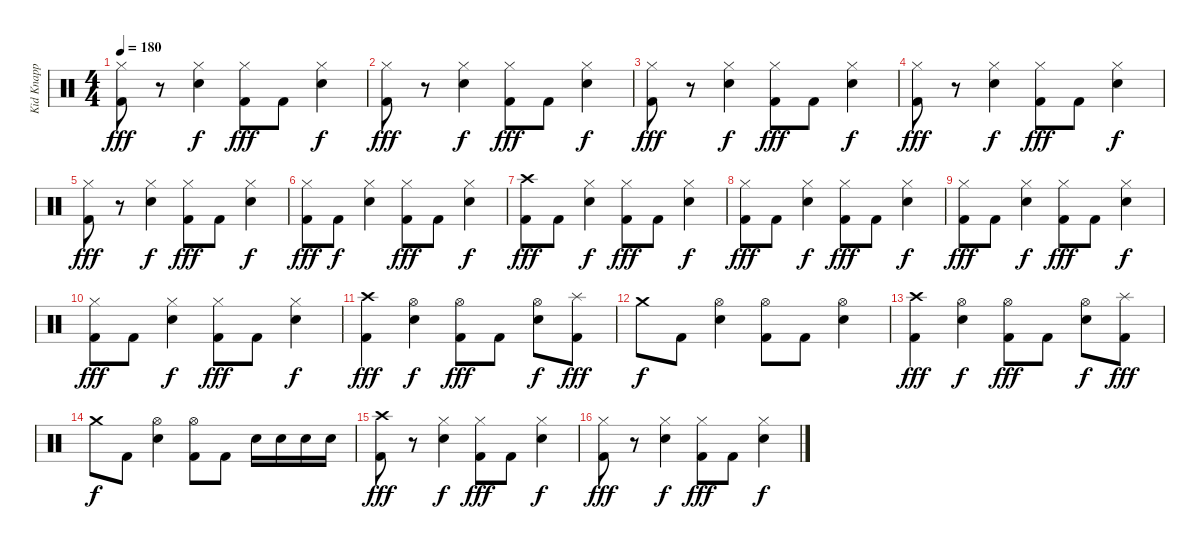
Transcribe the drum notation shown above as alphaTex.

\track ("Kid Knapp (Drums)" "Kid Knapp ") {instrument percussion}
\staff {score}
\articulation defaults
\ts (4 4)
\tempo 180
\clef neutral
\ks c
("Hi-Hat (closed)" "Kick (hit) 2").8{dy fff} r.8 ("Hi-Hat (closed)" "Snare (hit) 2").4{dy f} ("Hi-Hat (closed)" "Kick (hit) 2").8{dy fff} "Kick (hit) 2".8 ("Hi-Hat (closed)" "Snare (hit) 2").4{dy f} |
("Hi-Hat (closed)" "Kick (hit) 2").8{dy fff} r.8 ("Hi-Hat (closed)" "Snare (hit) 2").4{dy f} ("Hi-Hat (closed)" "Kick (hit) 2").8{dy fff} "Kick (hit) 2".8 ("Hi-Hat (closed)" "Snare (hit) 2").4{dy f} |
("Hi-Hat (closed)" "Kick (hit) 2").8{dy fff} r.8 ("Hi-Hat (closed)" "Snare (hit) 2").4{dy f} ("Hi-Hat (closed)" "Kick (hit) 2").8{dy fff} "Kick (hit) 2".8 ("Hi-Hat (closed)" "Snare (hit) 2").4{dy f} |
("Hi-Hat (closed)" "Kick (hit) 2").8{dy fff} r.8 ("Hi-Hat (closed)" "Snare (hit) 2").4{dy f} ("Hi-Hat (closed)" "Kick (hit) 2").8{dy fff} "Kick (hit) 2".8 ("Hi-Hat (closed)" "Snare (hit) 2").4{dy f} |
("Hi-Hat (closed)" "Kick (hit) 2").8{dy fff} r.8 ("Hi-Hat (closed)" "Snare (hit) 2").4{dy f} ("Hi-Hat (closed)" "Kick (hit) 2").8{dy fff} "Kick (hit) 2".8 ("Hi-Hat (closed)" "Snare (hit) 2").4{dy f} |
("Hi-Hat (closed)" "Kick (hit) 2").8{dy fff} "Kick (hit) 2".8{dy f} ("Hi-Hat (closed)" "Snare (hit) 2").4 ("Hi-Hat (closed)" "Kick (hit) 2").8{dy fff} "Kick (hit) 2".8 ("Hi-Hat (closed)" "Snare (hit) 2").4{dy f} |
("Crash high (hit)" "Kick (hit) 2").8{dy fff} "Kick (hit) 2".8 ("Hi-Hat (closed)" "Snare (hit) 2").4{dy f} ("Hi-Hat (closed)" "Kick (hit) 2").8{dy fff} "Kick (hit) 2".8 ("Hi-Hat (closed)" "Snare (hit) 2").4{dy f} |
("Hi-Hat (closed)" "Kick (hit) 2").8{dy fff} "Kick (hit) 2".8 ("Hi-Hat (closed)" "Snare (hit) 2").4{dy f} ("Hi-Hat (closed)" "Kick (hit) 2").8{dy fff} "Kick (hit) 2".8 ("Hi-Hat (closed)" "Snare (hit) 2").4{dy f} |
("Hi-Hat (closed)" "Kick (hit) 2").8{dy fff} "Kick (hit) 2".8 ("Hi-Hat (closed)" "Snare (hit) 2").4{dy f} ("Hi-Hat (closed)" "Kick (hit) 2").8{dy fff} "Kick (hit) 2".8 ("Hi-Hat (closed)" "Snare (hit) 2").4{dy f} |
("Hi-Hat (closed)" "Kick (hit) 2").8{dy fff} "Kick (hit) 2".8 ("Hi-Hat (closed)" "Snare (hit) 2").4{dy f} ("Hi-Hat (closed)" "Kick (hit) 2").8{dy fff} "Kick (hit) 2".8 ("Hi-Hat (closed)" "Snare (hit) 2").4{dy f} |
("Crash high (hit)" "Kick (hit) 2").4{dy fff} ("Hi-Hat (open)" "Snare (hit) 2").4{dy f} ("Hi-Hat (open)" "Kick (hit) 2").8{dy fff} "Kick (hit) 2".8 ("Hi-Hat (open)" "Snare (hit) 2").8{dy f} ("Splash (hit)" "Kick (hit) 2").8{dy fff} |
"Crash medium (hit)".8{dy f} "Kick (hit) 2".8 ("Hi-Hat (open)" "Snare (hit) 2").4 ("Hi-Hat (open)" "Kick (hit) 2").8 "Kick (hit) 2".8 ("Hi-Hat (open)" "Snare (hit) 2").4 |
("Crash high (hit)" "Kick (hit) 2").4{dy fff} ("Hi-Hat (open)" "Snare (hit) 2").4{dy f} ("Hi-Hat (open)" "Kick (hit) 2").8{dy fff} "Kick (hit) 2".8 ("Hi-Hat (open)" "Snare (hit) 2").8{dy f} ("Splash (hit)" "Kick (hit) 2").8{dy fff} |
"Crash medium (hit)".8{dy f} "Kick (hit) 2".8 ("Hi-Hat (open)" "Snare (hit) 2").4 ("Hi-Hat (open)" "Kick (hit) 2").8 "Kick (hit) 2".8 "Snare (hit) 2".16 "Snare (hit) 2".16 "Snare (hit) 2".16 "Snare (hit) 2".16 |
("Crash high (hit)" "Kick (hit) 2").8{dy fff} r.8 ("Hi-Hat (closed)" "Snare (hit) 2").4{dy f} ("Hi-Hat (closed)" "Kick (hit) 2").8{dy fff} "Kick (hit) 2".8 ("Hi-Hat (closed)" "Snare (hit) 2").4{dy f} |
("Hi-Hat (closed)" "Kick (hit) 2").8{dy fff} r.8 ("Hi-Hat (closed)" "Snare (hit) 2").4{dy f} ("Hi-Hat (closed)" "Kick (hit) 2").8{dy fff} "Kick (hit) 2".8 ("Hi-Hat (closed)" "Snare (hit) 2").4{dy f}
